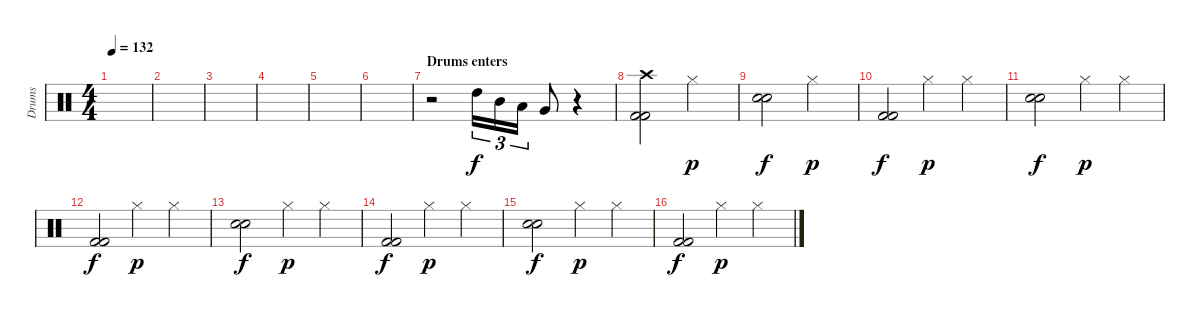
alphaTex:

\track ("Drums" "Drums") {instrument percussion}
\staff {score}
\articulation defaults
\ts (4 4)
\tempo 132
\clef neutral
\ks c
|
|
|
|
|
|
\section ("" "Drums enters")
r.2 "High Tom (hit)".16{tu (3 2)} "Mid Tom (hit)".16{tu (3 2)} "Low Tom (hit)".16{tu (3 2)} "Very Low Tom (hit)".8 r.4 |
("Crash high (hit)" "Kick (hit) 2" "Kick (hit) 2").2 "Hi-Hat (closed)".2{dy p} |
("Snare (hit) 2" "Snare (hit) 2").2{dy f} "Hi-Hat (closed)".2{dy p} |
("Kick (hit) 2" "Kick (hit) 2").2{dy f} "Hi-Hat (closed)".4{dy p} "Hi-Hat (closed)".4 |
("Snare (hit) 2" "Snare (hit) 2").2{dy f} "Hi-Hat (closed)".4{dy p} "Hi-Hat (closed)".4 |
("Kick (hit) 2" "Kick (hit) 2").2{dy f} "Hi-Hat (closed)".4{dy p} "Hi-Hat (closed)".4 |
("Snare (hit) 2" "Snare (hit) 2").2{dy f} "Hi-Hat (closed)".4{dy p} "Hi-Hat (closed)".4 |
("Kick (hit) 2" "Kick (hit) 2").2{dy f} "Hi-Hat (closed)".4{dy p} "Hi-Hat (closed)".4 |
("Snare (hit) 2" "Snare (hit) 2").2{dy f} "Hi-Hat (closed)".4{dy p} "Hi-Hat (closed)".4 |
("Kick (hit) 2" "Kick (hit) 2").2{dy f} "Hi-Hat (closed)".4{dy p} "Hi-Hat (closed)".4
